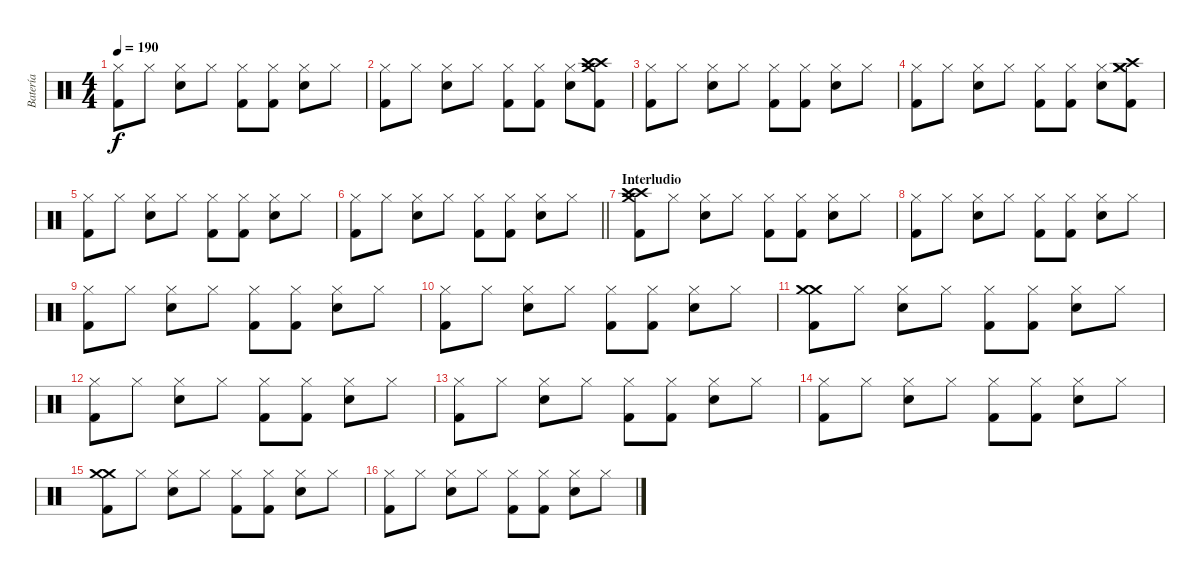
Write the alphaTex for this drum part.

\track ("Batería" "Batería") {instrument percussion}
\staff {score}
\articulation defaults
\ts (4 4)
\tempo 190
\clef neutral
\ks c
("Hi-Hat (closed)" "Kick (hit) 2").8{dy f} "Hi-Hat (closed)".8 ("Hi-Hat (closed)" "Snare (hit) 2").8 "Hi-Hat (closed)".8 ("Hi-Hat (closed)" "Kick (hit) 2").8 ("Hi-Hat (closed)" "Kick (hit) 2").8 ("Hi-Hat (closed)" "Snare (hit) 2").8 "Hi-Hat (closed)".8 |
("Hi-Hat (closed)" "Kick (hit) 2").8 "Hi-Hat (closed)".8 ("Hi-Hat (closed)" "Snare (hit) 2").8 "Hi-Hat (closed)".8 ("Hi-Hat (closed)" "Kick (hit) 2").8 ("Hi-Hat (closed)" "Kick (hit) 2").8 ("Hi-Hat (closed)" "Snare (hit) 2").8 ("Crash high (hit)" "Crash medium (hit)" "Crash high (hit)" "Kick (hit) 2").8 |
("Hi-Hat (closed)" "Kick (hit) 2").8 "Hi-Hat (closed)".8 ("Hi-Hat (closed)" "Snare (hit) 2").8 "Hi-Hat (closed)".8 ("Hi-Hat (closed)" "Kick (hit) 2").8 ("Hi-Hat (closed)" "Kick (hit) 2").8 ("Hi-Hat (closed)" "Snare (hit) 2").8 "Hi-Hat (closed)".8 |
("Hi-Hat (closed)" "Kick (hit) 2").8 "Hi-Hat (closed)".8 ("Hi-Hat (closed)" "Snare (hit) 2").8 "Hi-Hat (closed)".8 ("Hi-Hat (closed)" "Kick (hit) 2").8 ("Hi-Hat (closed)" "Kick (hit) 2").8 ("Hi-Hat (closed)" "Snare (hit) 2").8 ("Crash medium (hit)" "Crash high (hit)" "Crash medium (hit)" "Kick (hit) 2").8 |
("Hi-Hat (closed)" "Kick (hit) 2").8 "Hi-Hat (closed)".8 ("Hi-Hat (closed)" "Snare (hit) 2").8 "Hi-Hat (closed)".8 ("Hi-Hat (closed)" "Kick (hit) 2").8 ("Hi-Hat (closed)" "Kick (hit) 2").8 ("Hi-Hat (closed)" "Snare (hit) 2").8 "Hi-Hat (closed)".8 |
\barLineRight lightlight
("Hi-Hat (closed)" "Kick (hit) 2").8 "Hi-Hat (closed)".8 ("Hi-Hat (closed)" "Snare (hit) 2").8 "Hi-Hat (closed)".8 ("Hi-Hat (closed)" "Kick (hit) 2").8 ("Hi-Hat (closed)" "Kick (hit) 2").8 ("Hi-Hat (closed)" "Snare (hit) 2").8 "Hi-Hat (closed)".8 |
\section ("" "Interludio")
("Crash medium (hit)" "Crash high (hit)" "Crash high (hit)" "Kick (hit) 2").8 "Hi-Hat (closed)".8 ("Hi-Hat (closed)" "Snare (hit) 2").8 "Hi-Hat (closed)".8 ("Hi-Hat (closed)" "Kick (hit) 2").8 ("Hi-Hat (closed)" "Kick (hit) 2").8 ("Hi-Hat (closed)" "Snare (hit) 2").8 "Hi-Hat (closed)".8 |
("Hi-Hat (closed)" "Kick (hit) 2").8 "Hi-Hat (closed)".8 ("Hi-Hat (closed)" "Snare (hit) 2").8 "Hi-Hat (closed)".8 ("Hi-Hat (closed)" "Kick (hit) 2").8 ("Hi-Hat (closed)" "Kick (hit) 2").8 ("Hi-Hat (closed)" "Snare (hit) 2").8 "Hi-Hat (closed)".8 |
("Hi-Hat (closed)" "Kick (hit) 2").8 "Hi-Hat (closed)".8 ("Hi-Hat (closed)" "Snare (hit) 2").8 "Hi-Hat (closed)".8 ("Hi-Hat (closed)" "Kick (hit) 2").8 ("Hi-Hat (closed)" "Kick (hit) 2").8 ("Hi-Hat (closed)" "Snare (hit) 2").8 "Hi-Hat (closed)".8 |
("Hi-Hat (closed)" "Kick (hit) 2").8 "Hi-Hat (closed)".8 ("Hi-Hat (closed)" "Snare (hit) 2").8 "Hi-Hat (closed)".8 ("Hi-Hat (closed)" "Kick (hit) 2").8 ("Hi-Hat (closed)" "Kick (hit) 2").8 ("Hi-Hat (closed)" "Snare (hit) 2").8 "Hi-Hat (closed)".8 |
("Crash medium (hit)" "Crash medium (hit)" "Kick (hit) 2").8 "Hi-Hat (closed)".8 ("Hi-Hat (closed)" "Snare (hit) 2").8 "Hi-Hat (closed)".8 ("Hi-Hat (closed)" "Kick (hit) 2").8 ("Hi-Hat (closed)" "Kick (hit) 2").8 ("Hi-Hat (closed)" "Snare (hit) 2").8 "Hi-Hat (closed)".8 |
("Hi-Hat (closed)" "Kick (hit) 2").8 "Hi-Hat (closed)".8 ("Hi-Hat (closed)" "Snare (hit) 2").8 "Hi-Hat (closed)".8 ("Hi-Hat (closed)" "Kick (hit) 2").8 ("Hi-Hat (closed)" "Kick (hit) 2").8 ("Hi-Hat (closed)" "Snare (hit) 2").8 "Hi-Hat (closed)".8 |
("Hi-Hat (closed)" "Kick (hit) 2").8 "Hi-Hat (closed)".8 ("Hi-Hat (closed)" "Snare (hit) 2").8 "Hi-Hat (closed)".8 ("Hi-Hat (closed)" "Kick (hit) 2").8 ("Hi-Hat (closed)" "Kick (hit) 2").8 ("Hi-Hat (closed)" "Snare (hit) 2").8 "Hi-Hat (closed)".8 |
("Hi-Hat (closed)" "Kick (hit) 2").8 "Hi-Hat (closed)".8 ("Hi-Hat (closed)" "Snare (hit) 2").8 "Hi-Hat (closed)".8 ("Hi-Hat (closed)" "Kick (hit) 2").8 ("Hi-Hat (closed)" "Kick (hit) 2").8 ("Hi-Hat (closed)" "Snare (hit) 2").8 "Hi-Hat (closed)".8 |
("Crash medium (hit)" "Crash medium (hit)" "Kick (hit) 2").8 "Hi-Hat (closed)".8 ("Hi-Hat (closed)" "Snare (hit) 2").8 "Hi-Hat (closed)".8 ("Hi-Hat (closed)" "Kick (hit) 2").8 ("Hi-Hat (closed)" "Kick (hit) 2").8 ("Hi-Hat (closed)" "Snare (hit) 2").8 "Hi-Hat (closed)".8 |
("Hi-Hat (closed)" "Kick (hit) 2").8 "Hi-Hat (closed)".8 ("Hi-Hat (closed)" "Snare (hit) 2").8 "Hi-Hat (closed)".8 ("Hi-Hat (closed)" "Kick (hit) 2").8 ("Hi-Hat (closed)" "Kick (hit) 2").8 ("Hi-Hat (closed)" "Snare (hit) 2").8 "Hi-Hat (closed)".8
